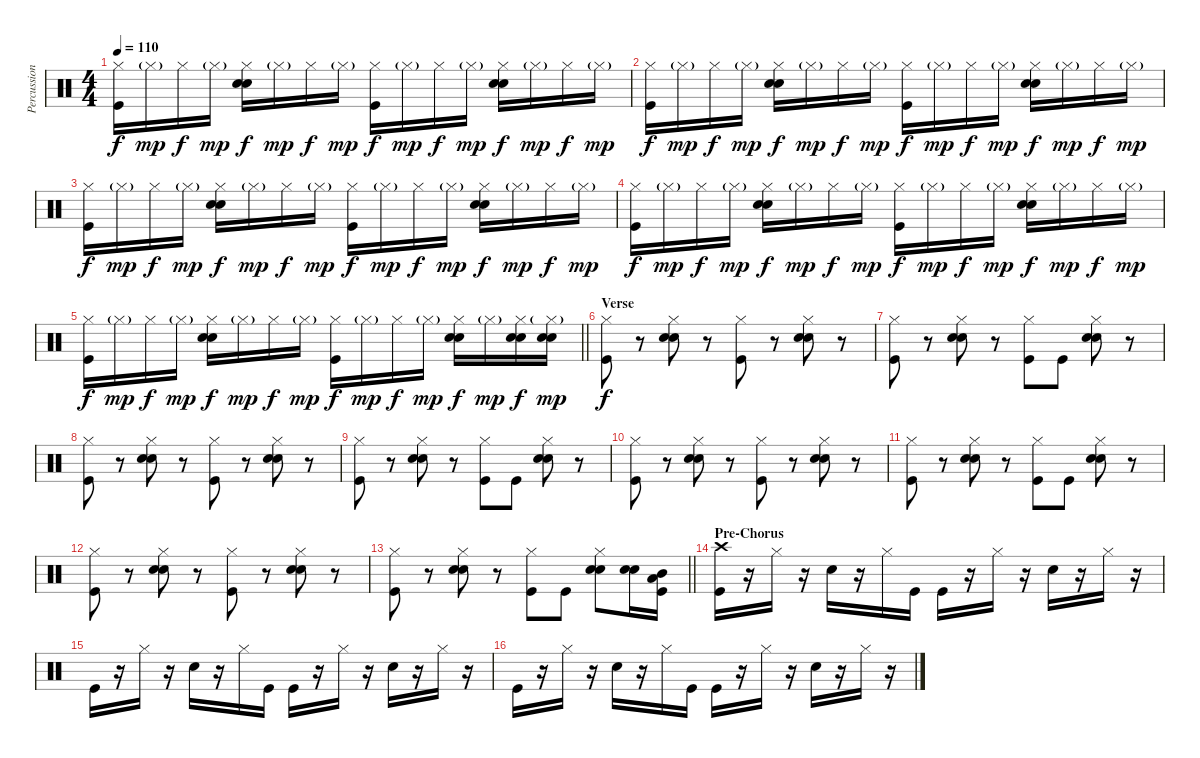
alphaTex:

\track ("Percussion" "Percussion") {instrument percussion}
\staff {score}
\articulation defaults
\ts (4 4)
\tempo 110
\clef neutral
\ks c
("Hi-Hat (closed)" "Kick (hit)").16{dy f} "Hi-Hat (closed)"{g}.16{dy mp} "Hi-Hat (closed)".16{dy f} "Hi-Hat (closed)"{g}.16{dy mp} ("Hi-Hat (closed)" "Hand Clap (hit)" "Snare (hit) 2").16{dy f} "Hi-Hat (closed)"{g}.16{dy mp} "Hi-Hat (closed)".16{dy f} "Hi-Hat (closed)"{g}.16{dy mp} ("Hi-Hat (closed)" "Kick (hit)").16{dy f} "Hi-Hat (closed)"{g}.16{dy mp} "Hi-Hat (closed)".16{dy f} "Hi-Hat (closed)"{g}.16{dy mp} ("Hi-Hat (closed)" "Hand Clap (hit)" "Snare (hit) 2").16{dy f} "Hi-Hat (closed)"{g}.16{dy mp} "Hi-Hat (closed)".16{dy f} "Hi-Hat (closed)"{g}.16{dy mp} |
("Hi-Hat (closed)" "Kick (hit)").16{dy f} "Hi-Hat (closed)"{g}.16{dy mp} "Hi-Hat (closed)".16{dy f} "Hi-Hat (closed)"{g}.16{dy mp} ("Hi-Hat (closed)" "Hand Clap (hit)" "Snare (hit) 2").16{dy f} "Hi-Hat (closed)"{g}.16{dy mp} "Hi-Hat (closed)".16{dy f} "Hi-Hat (closed)"{g}.16{dy mp} ("Hi-Hat (closed)" "Kick (hit)").16{dy f} "Hi-Hat (closed)"{g}.16{dy mp} "Hi-Hat (closed)".16{dy f} "Hi-Hat (closed)"{g}.16{dy mp} ("Hi-Hat (closed)" "Hand Clap (hit)" "Snare (hit) 2").16{dy f} "Hi-Hat (closed)"{g}.16{dy mp} "Hi-Hat (closed)".16{dy f} "Hi-Hat (closed)"{g}.16{dy mp} |
("Hi-Hat (closed)" "Kick (hit)").16{dy f} "Hi-Hat (closed)"{g}.16{dy mp} "Hi-Hat (closed)".16{dy f} "Hi-Hat (closed)"{g}.16{dy mp} ("Hi-Hat (closed)" "Hand Clap (hit)" "Snare (hit) 2").16{dy f} "Hi-Hat (closed)"{g}.16{dy mp} "Hi-Hat (closed)".16{dy f} "Hi-Hat (closed)"{g}.16{dy mp} ("Hi-Hat (closed)" "Kick (hit)").16{dy f} "Hi-Hat (closed)"{g}.16{dy mp} "Hi-Hat (closed)".16{dy f} "Hi-Hat (closed)"{g}.16{dy mp} ("Hi-Hat (closed)" "Hand Clap (hit)" "Snare (hit) 2").16{dy f} "Hi-Hat (closed)"{g}.16{dy mp} "Hi-Hat (closed)".16{dy f} "Hi-Hat (closed)"{g}.16{dy mp} |
("Hi-Hat (closed)" "Kick (hit)").16{dy f} "Hi-Hat (closed)"{g}.16{dy mp} "Hi-Hat (closed)".16{dy f} "Hi-Hat (closed)"{g}.16{dy mp} ("Hi-Hat (closed)" "Hand Clap (hit)" "Snare (hit) 2").16{dy f} "Hi-Hat (closed)"{g}.16{dy mp} "Hi-Hat (closed)".16{dy f} "Hi-Hat (closed)"{g}.16{dy mp} ("Hi-Hat (closed)" "Kick (hit)").16{dy f} "Hi-Hat (closed)"{g}.16{dy mp} "Hi-Hat (closed)".16{dy f} "Hi-Hat (closed)"{g}.16{dy mp} ("Hi-Hat (closed)" "Hand Clap (hit)" "Snare (hit) 2").16{dy f} "Hi-Hat (closed)"{g}.16{dy mp} "Hi-Hat (closed)".16{dy f} "Hi-Hat (closed)"{g}.16{dy mp} |
\barLineRight lightlight
("Hi-Hat (closed)" "Kick (hit)").16{dy f} "Hi-Hat (closed)"{g}.16{dy mp} "Hi-Hat (closed)".16{dy f} "Hi-Hat (closed)"{g}.16{dy mp} ("Hi-Hat (closed)" "Hand Clap (hit)" "Snare (hit) 2").16{dy f} "Hi-Hat (closed)"{g}.16{dy mp} "Hi-Hat (closed)".16{dy f} "Hi-Hat (closed)"{g}.16{dy mp} ("Hi-Hat (closed)" "Kick (hit)").16{dy f} "Hi-Hat (closed)"{g}.16{dy mp} "Hi-Hat (closed)".16{dy f} "Hi-Hat (closed)"{g}.16{dy mp} ("Hi-Hat (closed)" "Hand Clap (hit)" "Snare (hit) 2").16{dy f} "Hi-Hat (closed)"{g}.16{dy mp} ("Hi-Hat (closed)" "Hand Clap (hit)" "Snare (hit) 2").16{dy f} ("Hi-Hat (closed)"{g} "Hand Clap (hit)" "Snare (hit) 2").16{dy mp} |
\section ("" "Verse")
("Hi-Hat (closed)" "Kick (hit)").8{dy f} r.8 ("Hi-Hat (closed)" "Hand Clap (hit)" "Snare (hit) 2").8 r.8 ("Hi-Hat (closed)" "Kick (hit)").8 r.8 ("Hi-Hat (closed)" "Hand Clap (hit)" "Snare (hit) 2").8 r.8 |
("Hi-Hat (closed)" "Kick (hit)").8 r.8 ("Hi-Hat (closed)" "Hand Clap (hit)" "Snare (hit) 2").8 r.8 ("Hi-Hat (closed)" "Kick (hit)").8 "Kick (hit)".8 ("Hi-Hat (closed)" "Hand Clap (hit)" "Snare (hit) 2").8 r.8 |
("Hi-Hat (closed)" "Kick (hit)").8 r.8 ("Hi-Hat (closed)" "Hand Clap (hit)" "Snare (hit) 2").8 r.8 ("Hi-Hat (closed)" "Kick (hit)").8 r.8 ("Hi-Hat (closed)" "Hand Clap (hit)" "Snare (hit) 2").8 r.8 |
("Hi-Hat (closed)" "Kick (hit)").8 r.8 ("Hi-Hat (closed)" "Hand Clap (hit)" "Snare (hit) 2").8 r.8 ("Hi-Hat (closed)" "Kick (hit)").8 "Kick (hit)".8 ("Hi-Hat (closed)" "Hand Clap (hit)" "Snare (hit) 2").8 r.8 |
("Hi-Hat (closed)" "Kick (hit)").8 r.8 ("Hi-Hat (closed)" "Hand Clap (hit)" "Snare (hit) 2").8 r.8 ("Hi-Hat (closed)" "Kick (hit)").8 r.8 ("Hi-Hat (closed)" "Hand Clap (hit)" "Snare (hit) 2").8 r.8 |
("Hi-Hat (closed)" "Kick (hit)").8 r.8 ("Hi-Hat (closed)" "Hand Clap (hit)" "Snare (hit) 2").8 r.8 ("Hi-Hat (closed)" "Kick (hit)").8 "Kick (hit)".8 ("Hi-Hat (closed)" "Hand Clap (hit)" "Snare (hit) 2").8 r.8 |
("Hi-Hat (closed)" "Kick (hit)").8 r.8 ("Hi-Hat (closed)" "Hand Clap (hit)" "Snare (hit) 2").8 r.8 ("Hi-Hat (closed)" "Kick (hit)").8 r.8 ("Hi-Hat (closed)" "Hand Clap (hit)" "Snare (hit) 2").8 r.8 |
\barLineRight lightlight
("Hi-Hat (closed)" "Kick (hit)").8 r.8 ("Hi-Hat (closed)" "Hand Clap (hit)" "Snare (hit) 2").8 r.8 ("Hi-Hat (closed)" "Kick (hit)").8 "Kick (hit)".8 ("Hi-Hat (closed)" "Hand Clap (hit)" "Snare (hit) 2").8 ("Hand Clap (hit)" "Snare (hit) 2").16 ("Mid Tom (hit)" "Low Tom (hit)" "Kick (hit)").16 |
\section ("" "Pre-Chorus")
("Crash high (hit)" "Kick (hit)").16 r.16 "Hi-Hat (closed)".16 r.16 "Snare (hit) 2".16 r.16 "Hi-Hat (closed)".16 "Kick (hit)".16 "Kick (hit)".16 r.16 "Hi-Hat (closed)".16 r.16 "Snare (hit) 2".16 r.16 "Hi-Hat (closed)".16 r.16 |
"Kick (hit)".16 r.16 "Hi-Hat (closed)".16 r.16 "Snare (hit) 2".16 r.16 "Hi-Hat (closed)".16 "Kick (hit)".16 "Kick (hit)".16 r.16 "Hi-Hat (closed)".16 r.16 "Snare (hit) 2".16 r.16 "Hi-Hat (closed)".16 r.16 |
"Kick (hit)".16 r.16 "Hi-Hat (closed)".16 r.16 "Snare (hit) 2".16 r.16 "Hi-Hat (closed)".16 "Kick (hit)".16 "Kick (hit)".16 r.16 "Hi-Hat (closed)".16 r.16 "Snare (hit) 2".16 r.16 "Hi-Hat (closed)".16 r.16
